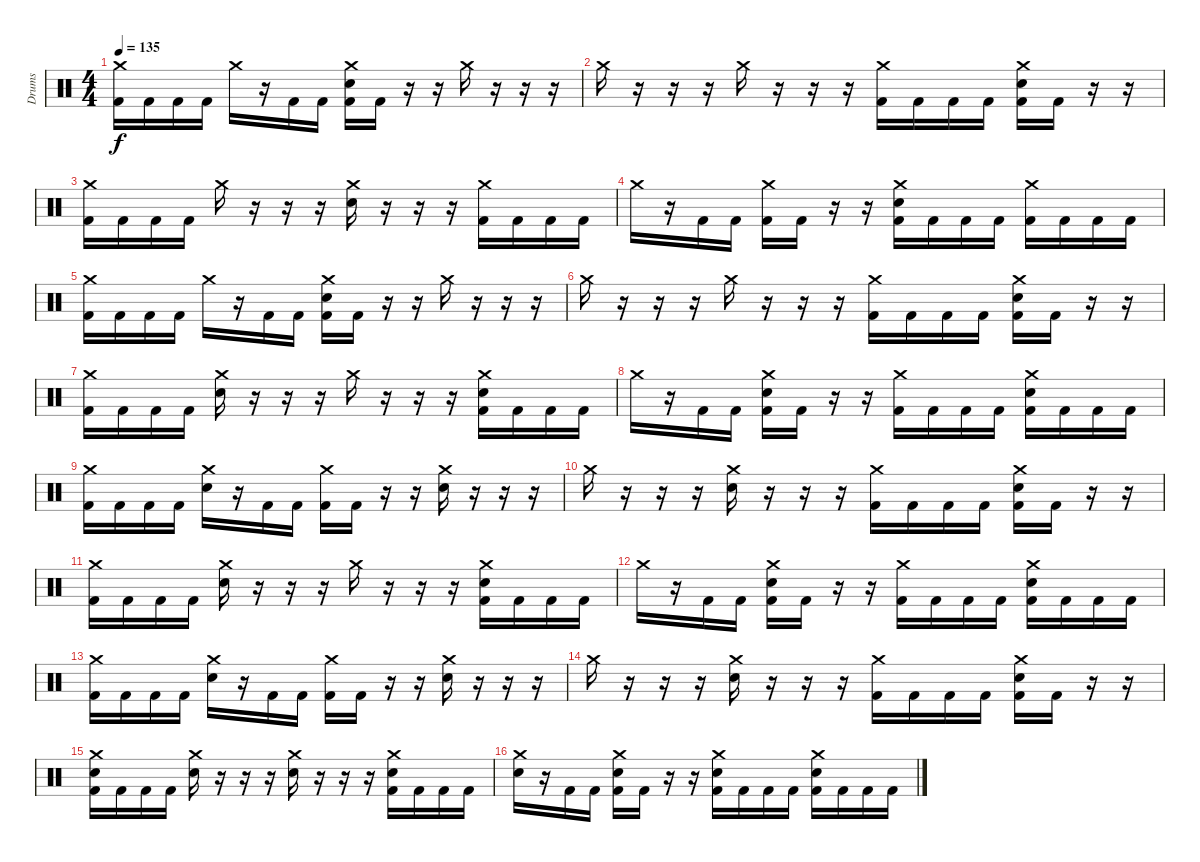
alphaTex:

\track ("Drums" "Drums") {instrument percussion}
\staff {score}
\articulation defaults
\ts (4 4)
\tempo 135
\clef neutral
\ks c
("Crash medium (hit)" "Kick (hit) 2").16{dy f} "Kick (hit) 2".16 "Kick (hit) 2".16 "Kick (hit) 2".16 "Crash medium (hit)".16 r.16 "Kick (hit) 2".16 "Kick (hit) 2".16 ("Crash medium (hit)" "Snare (hit) 2" "Kick (hit) 2").16 "Kick (hit) 2".16 r.16 r.16 "Crash medium (hit)".16 r.16 r.16 r.16 |
"Crash medium (hit)".16 r.16 r.16 r.16 "Crash medium (hit)".16 r.16 r.16 r.16 ("Crash medium (hit)" "Kick (hit) 2").16 "Kick (hit) 2".16 "Kick (hit) 2".16 "Kick (hit) 2".16 ("Crash medium (hit)" "Snare (hit) 2" "Kick (hit) 2").16 "Kick (hit) 2".16 r.16 r.16 |
("Crash medium (hit)" "Kick (hit) 2").16 "Kick (hit) 2".16 "Kick (hit) 2".16 "Kick (hit) 2".16 "Crash medium (hit)".16 r.16 r.16 r.16 ("Crash medium (hit)" "Snare (hit) 2").16 r.16 r.16 r.16 ("Crash medium (hit)" "Kick (hit) 2").16 "Kick (hit) 2".16 "Kick (hit) 2".16 "Kick (hit) 2".16 |
"Crash medium (hit)".16 r.16 "Kick (hit) 2".16 "Kick (hit) 2".16 ("Crash medium (hit)" "Kick (hit) 2").16 "Kick (hit) 2".16 r.16 r.16 ("Crash medium (hit)" "Snare (hit) 2" "Kick (hit) 2").16 "Kick (hit) 2".16 "Kick (hit) 2".16 "Kick (hit) 2".16 ("Crash medium (hit)" "Kick (hit) 2").16 "Kick (hit) 2".16 "Kick (hit) 2".16 "Kick (hit) 2".16 |
("Crash medium (hit)" "Kick (hit) 2").16 "Kick (hit) 2".16 "Kick (hit) 2".16 "Kick (hit) 2".16 "Crash medium (hit)".16 r.16 "Kick (hit) 2".16 "Kick (hit) 2".16 ("Crash medium (hit)" "Snare (hit) 2" "Kick (hit) 2").16 "Kick (hit) 2".16 r.16 r.16 "Crash medium (hit)".16 r.16 r.16 r.16 |
"Crash medium (hit)".16 r.16 r.16 r.16 "Crash medium (hit)".16 r.16 r.16 r.16 ("Crash medium (hit)" "Kick (hit) 2").16 "Kick (hit) 2".16 "Kick (hit) 2".16 "Kick (hit) 2".16 ("Crash medium (hit)" "Snare (hit) 2" "Kick (hit) 2").16 "Kick (hit) 2".16 r.16 r.16 |
("Crash medium (hit)" "Kick (hit) 2").16 "Kick (hit) 2".16 "Kick (hit) 2".16 "Kick (hit) 2".16 ("Crash medium (hit)" "Snare (hit) 2").16 r.16 r.16 r.16 "Crash medium (hit)".16 r.16 r.16 r.16 ("Crash medium (hit)" "Snare (hit) 2" "Kick (hit) 2").16 "Kick (hit) 2".16 "Kick (hit) 2".16 "Kick (hit) 2".16 |
"Crash medium (hit)".16 r.16 "Kick (hit) 2".16 "Kick (hit) 2".16 ("Crash medium (hit)" "Snare (hit) 2" "Kick (hit) 2").16 "Kick (hit) 2".16 r.16 r.16 ("Crash medium (hit)" "Kick (hit) 2").16 "Kick (hit) 2".16 "Kick (hit) 2".16 "Kick (hit) 2".16 ("Crash medium (hit)" "Snare (hit) 2" "Kick (hit) 2").16 "Kick (hit) 2".16 "Kick (hit) 2".16 "Kick (hit) 2".16 |
("Crash medium (hit)" "Kick (hit) 2").16 "Kick (hit) 2".16 "Kick (hit) 2".16 "Kick (hit) 2".16 ("Crash medium (hit)" "Snare (hit) 2").16 r.16 "Kick (hit) 2".16 "Kick (hit) 2".16 ("Crash medium (hit)" "Kick (hit) 2").16 "Kick (hit) 2".16 r.16 r.16 ("Crash medium (hit)" "Snare (hit) 2").16 r.16 r.16 r.16 |
"Crash medium (hit)".16 r.16 r.16 r.16 ("Crash medium (hit)" "Snare (hit) 2").16 r.16 r.16 r.16 ("Crash medium (hit)" "Kick (hit) 2").16 "Kick (hit) 2".16 "Kick (hit) 2".16 "Kick (hit) 2".16 ("Crash medium (hit)" "Snare (hit) 2" "Kick (hit) 2").16 "Kick (hit) 2".16 r.16 r.16 |
("Crash medium (hit)" "Kick (hit) 2").16 "Kick (hit) 2".16 "Kick (hit) 2".16 "Kick (hit) 2".16 ("Crash medium (hit)" "Snare (hit) 2").16 r.16 r.16 r.16 "Crash medium (hit)".16 r.16 r.16 r.16 ("Crash medium (hit)" "Snare (hit) 2" "Kick (hit) 2").16 "Kick (hit) 2".16 "Kick (hit) 2".16 "Kick (hit) 2".16 |
"Crash medium (hit)".16 r.16 "Kick (hit) 2".16 "Kick (hit) 2".16 ("Crash medium (hit)" "Snare (hit) 2" "Kick (hit) 2").16 "Kick (hit) 2".16 r.16 r.16 ("Crash medium (hit)" "Kick (hit) 2").16 "Kick (hit) 2".16 "Kick (hit) 2".16 "Kick (hit) 2".16 ("Crash medium (hit)" "Snare (hit) 2" "Kick (hit) 2").16 "Kick (hit) 2".16 "Kick (hit) 2".16 "Kick (hit) 2".16 |
("Crash medium (hit)" "Kick (hit) 2").16 "Kick (hit) 2".16 "Kick (hit) 2".16 "Kick (hit) 2".16 ("Crash medium (hit)" "Snare (hit) 2").16 r.16 "Kick (hit) 2".16 "Kick (hit) 2".16 ("Crash medium (hit)" "Kick (hit) 2").16 "Kick (hit) 2".16 r.16 r.16 ("Crash medium (hit)" "Snare (hit) 2").16 r.16 r.16 r.16 |
"Crash medium (hit)".16 r.16 r.16 r.16 ("Crash medium (hit)" "Snare (hit) 2").16 r.16 r.16 r.16 ("Crash medium (hit)" "Kick (hit) 2").16 "Kick (hit) 2".16 "Kick (hit) 2".16 "Kick (hit) 2".16 ("Crash medium (hit)" "Snare (hit) 2" "Kick (hit) 2").16 "Kick (hit) 2".16 r.16 r.16 |
("Crash medium (hit)" "Snare (hit) 2" "Kick (hit) 2").16 "Kick (hit) 2".16 "Kick (hit) 2".16 "Kick (hit) 2".16 ("Crash medium (hit)" "Snare (hit) 2").16 r.16 r.16 r.16 ("Crash medium (hit)" "Snare (hit) 2").16 r.16 r.16 r.16 ("Crash medium (hit)" "Snare (hit) 2" "Kick (hit) 2").16 "Kick (hit) 2".16 "Kick (hit) 2".16 "Kick (hit) 2".16 |
("Crash medium (hit)" "Snare (hit) 2").16 r.16 "Kick (hit) 2".16 "Kick (hit) 2".16 ("Crash medium (hit)" "Snare (hit) 2" "Kick (hit) 2").16 "Kick (hit) 2".16 r.16 r.16 ("Crash medium (hit)" "Snare (hit) 2" "Kick (hit) 2").16 "Kick (hit) 2".16 "Kick (hit) 2".16 "Kick (hit) 2".16 ("Crash medium (hit)" "Snare (hit) 2" "Kick (hit) 2").16 "Kick (hit) 2".16 "Kick (hit) 2".16 "Kick (hit) 2".16
